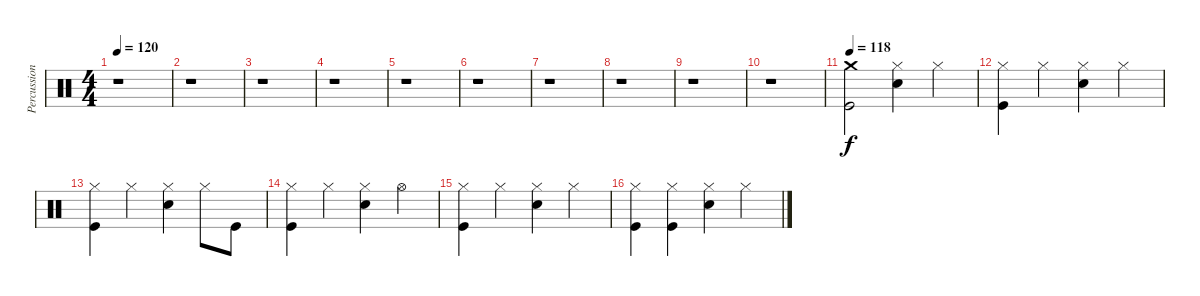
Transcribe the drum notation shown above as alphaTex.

\track ("Percussioni" "Percussion") {instrument percussion}
\staff {score}
\articulation defaults
\ts (4 4)
\tempo 120
\clef neutral
\ks c
r.1{dy f} |
r.1 |
r.1 |
r.1 |
r.1 |
r.1 |
r.1 |
r.1 |
r.1 |
r.1 |
\tempo 118
("Crash medium (hit)" "Kick (hit)").2 ("Hi-Hat (closed)" "Snare (hit) 2").4 "Hi-Hat (closed)".4 |
("Hi-Hat (closed)" "Kick (hit)").4 "Hi-Hat (closed)".4 ("Hi-Hat (closed)" "Snare (hit) 2").4 "Hi-Hat (closed)".4 |
("Hi-Hat (closed)" "Kick (hit)").4 "Hi-Hat (closed)".4 ("Hi-Hat (closed)" "Snare (hit) 2").4 "Hi-Hat (closed)".8 "Kick (hit)".8 |
("Hi-Hat (closed)" "Kick (hit)").4 "Hi-Hat (closed)".4 ("Hi-Hat (closed)" "Snare (hit) 2").4 "Hi-Hat (open)".4 |
("Hi-Hat (closed)" "Kick (hit)").4 "Hi-Hat (closed)".4 ("Hi-Hat (closed)" "Snare (hit) 2").4 "Hi-Hat (closed)".4 |
("Hi-Hat (closed)" "Kick (hit)").4 ("Hi-Hat (closed)" "Kick (hit)").4 ("Hi-Hat (closed)" "Snare (hit) 2").4 "Hi-Hat (closed)".4
